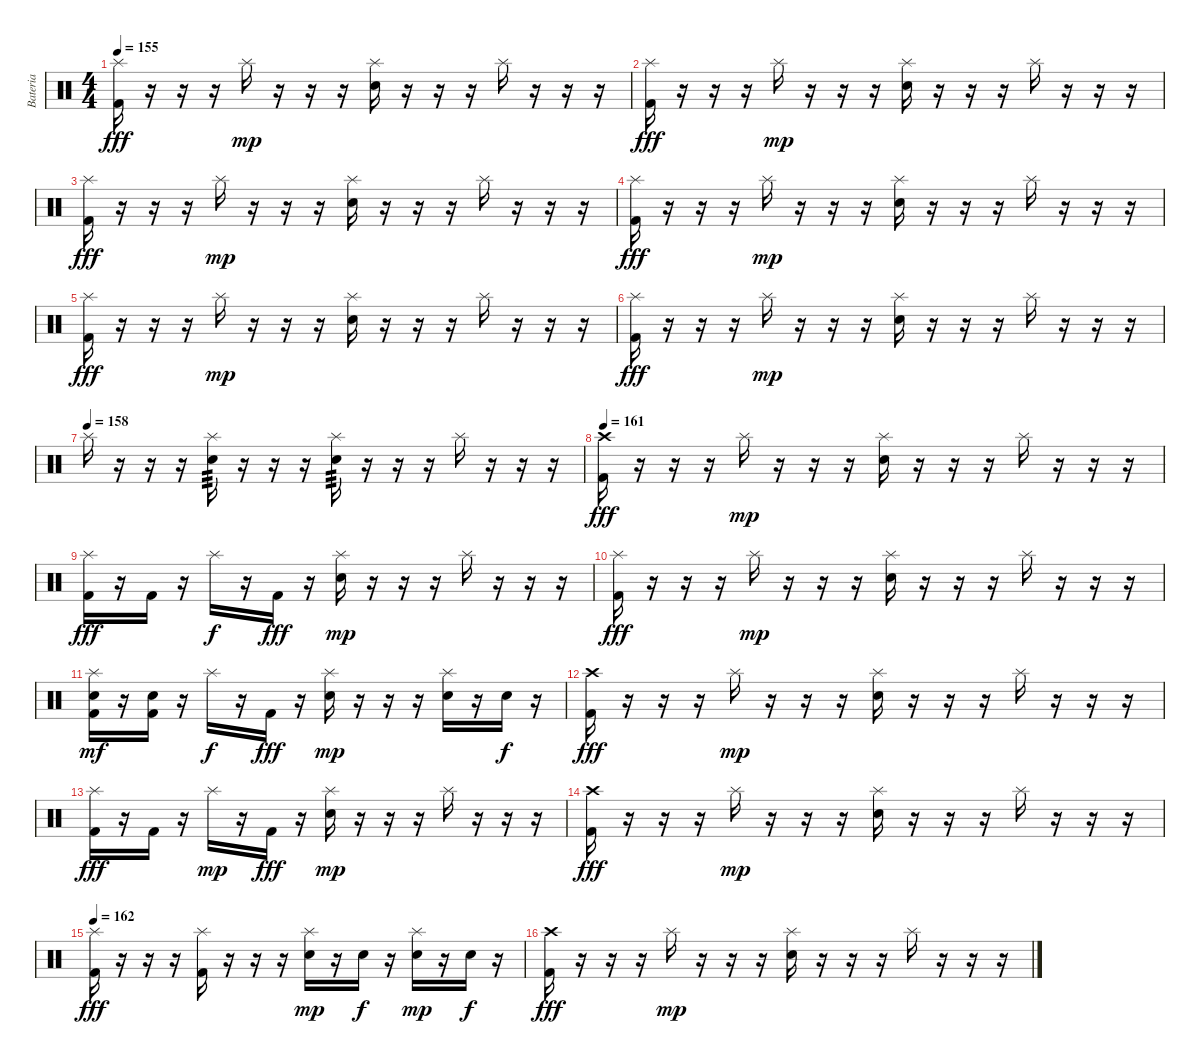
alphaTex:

\track ("Bateria" "Bateria") {instrument percussion}
\staff {score}
\articulation defaults
\ts (4 4)
\tempo 155
\clef neutral
\ks c
("Splash (hit)" "Kick (hit) 2").16{dy fff} r.16 r.16 r.16 "Splash (hit)".16{dy mp} r.16 r.16 r.16 ("Splash (hit)" "Electric Snare (hit)").16 r.16 r.16 r.16 "Splash (hit)".16 r.16 r.16 r.16 |
("Splash (hit)" "Kick (hit) 2").16{dy fff} r.16 r.16 r.16 "Splash (hit)".16{dy mp} r.16 r.16 r.16 ("Splash (hit)" "Electric Snare (hit)").16 r.16 r.16 r.16 "Splash (hit)".16 r.16 r.16 r.16 |
("Splash (hit)" "Kick (hit) 2").16{dy fff} r.16 r.16 r.16 "Splash (hit)".16{dy mp} r.16 r.16 r.16 ("Splash (hit)" "Electric Snare (hit)").16 r.16 r.16 r.16 "Splash (hit)".16 r.16 r.16 r.16 |
("Splash (hit)" "Kick (hit) 2").16{dy fff} r.16 r.16 r.16 "Splash (hit)".16{dy mp} r.16 r.16 r.16 ("Splash (hit)" "Electric Snare (hit)").16 r.16 r.16 r.16 "Splash (hit)".16 r.16 r.16 r.16 |
("Splash (hit)" "Kick (hit) 2").16{dy fff} r.16 r.16 r.16 "Splash (hit)".16{dy mp} r.16 r.16 r.16 ("Splash (hit)" "Electric Snare (hit)").16 r.16 r.16 r.16 "Splash (hit)".16 r.16 r.16 r.16 |
("Splash (hit)" "Kick (hit) 2").16{dy fff} r.16 r.16 r.16 "Splash (hit)".16{dy mp} r.16 r.16 r.16 ("Splash (hit)" "Electric Snare (hit)").16 r.16 r.16 r.16 "Splash (hit)".16 r.16 r.16 r.16 |
\tempo (158)
"Splash (hit)".16 r.16 r.16 r.16 ("Splash (hit)" "Electric Snare (hit)").16{tp 3} r.16 r.16 r.16 ("Splash (hit)" "Electric Snare (hit)").16{tp 3} r.16 r.16 r.16 "Splash (hit)".16 r.16 r.16 r.16 |
\tempo 161
("Crash high (hit)" "Kick (hit) 2").16{dy fff} r.16 r.16 r.16 "Splash (hit)".16{dy mp} r.16 r.16 r.16 ("Splash (hit)" "Electric Snare (hit)").16 r.16 r.16 r.16 "Splash (hit)".16 r.16 r.16 r.16 |
("Splash (hit)" "Kick (hit) 2").16{dy fff} r.16 "Kick (hit) 2".16 r.16 "Splash (hit)".16{dy f} r.16 "Kick (hit) 2".16{dy fff} r.16 ("Splash (hit)" "Electric Snare (hit)").16{dy mp} r.16 r.16 r.16 "Splash (hit)".16 r.16 r.16 r.16 |
("Splash (hit)" "Kick (hit) 2").16{dy fff} r.16 r.16 r.16 "Splash (hit)".16{dy mp} r.16 r.16 r.16 ("Splash (hit)" "Electric Snare (hit)").16 r.16 r.16 r.16 "Splash (hit)".16 r.16 r.16 r.16 |
("Splash (hit)" "Kick (hit) 2" "Electric Snare (hit)").16{dy mf} r.16 ("Kick (hit) 2" "Electric Snare (hit)").16 r.16 "Splash (hit)".16{dy f} r.16 "Kick (hit) 2".16{dy fff} r.16 ("Splash (hit)" "Electric Snare (hit)").16{dy mp} r.16 r.16 r.16 ("Splash (hit)" "Electric Snare (hit)").16 r.16 "Electric Snare (hit)".16{dy f} r.16 |
("Crash high (hit)" "Kick (hit) 2").16{dy fff} r.16 r.16 r.16 "Splash (hit)".16{dy mp} r.16 r.16 r.16 ("Splash (hit)" "Electric Snare (hit)").16 r.16 r.16 r.16 "Splash (hit)".16 r.16 r.16 r.16 |
("Splash (hit)" "Kick (hit) 2").16{dy fff} r.16 "Kick (hit) 2".16 r.16 "Splash (hit)".16{dy mp} r.16 "Kick (hit) 2".16{dy fff} r.16 ("Splash (hit)" "Electric Snare (hit)").16{dy mp} r.16 r.16 r.16 "Splash (hit)".16 r.16 r.16 r.16 |
("Crash high (hit)" "Kick (hit) 2").16{dy fff} r.16 r.16 r.16 "Splash (hit)".16{dy mp} r.16 r.16 r.16 ("Splash (hit)" "Electric Snare (hit)").16 r.16 r.16 r.16 "Splash (hit)".16 r.16 r.16 r.16 |
\tempo 162
("Splash (hit)" "Kick (hit) 2").16{dy fff} r.16 r.16 r.16 ("Splash (hit)" "Kick (hit) 2").16 r.16 r.16 r.16 ("Splash (hit)" "Electric Snare (hit)").16{dy mp} r.16 "Electric Snare (hit)".16{dy f} r.16 ("Splash (hit)" "Electric Snare (hit)").16{dy mp} r.16 "Electric Snare (hit)".16{dy f} r.16 |
("Crash high (hit)" "Kick (hit) 2").16{dy fff} r.16 r.16 r.16 "Splash (hit)".16{dy mp} r.16 r.16 r.16 ("Splash (hit)" "Electric Snare (hit)").16 r.16 r.16 r.16 "Splash (hit)".16 r.16 r.16 r.16
